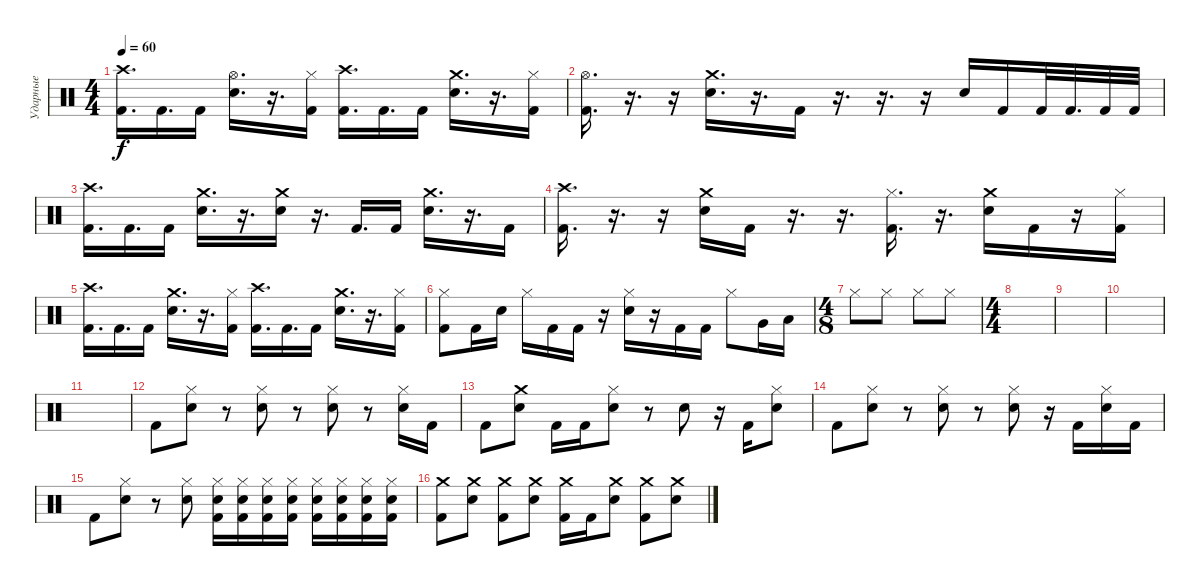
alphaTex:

\track ("Ударные" "Ударные") {instrument percussion}
\staff {score}
\articulation defaults
\ts (4 4)
\tempo 60
\clef neutral
\ks c
("Crash high (hit)" "Kick (hit) 2").16{d dy f} "Kick (hit) 2".16{d} "Kick (hit) 2".16 ("Hi-Hat (open)" "Electric Snare (hit)").16{d} r.16{d} ("Hi-Hat (closed)" "Kick (hit) 2").16 ("Crash high (hit)" "Kick (hit) 2").16{d} "Kick (hit) 2".16{d} "Kick (hit) 2".16 ("Crash medium (hit)" "Electric Snare (hit)").16{d} r.16{d} ("Hi-Hat (closed)" "Kick (hit) 2").16 |
("Hi-Hat (open)" "Kick (hit) 2").16{d} r.16{d} r.16 ("Crash medium (hit)" "Electric Snare (hit)").16{d} r.16{d} "Kick (hit) 2".16 r.16{d} r.16{d} r.16 "Electric Snare (hit)".16 "Kick (hit) 2".16 "Kick (hit) 2".32 "Kick (hit) 2".32{d} "Kick (hit) 2".32 "Kick (hit) 2".32 |
("Crash high (hit)" "Kick (hit) 2").16{d} "Kick (hit) 2".16{d} "Kick (hit) 2".16 ("Crash medium (hit)" "Electric Snare (hit)").16{d} r.16{d} ("Crash medium (hit)" "Electric Snare (hit)").16 r.16{d} "Kick (hit) 2".16{d} "Kick (hit) 2".16 ("Crash medium (hit)" "Electric Snare (hit)").16{d} r.16{d} "Kick (hit) 2".16 |
("Crash high (hit)" "Kick (hit) 2").16{d} r.16{d} r.16 ("Crash medium (hit)" "Electric Snare (hit)").16 "Kick (hit) 2".16 r.16{d} r.16{d} ("Hi-Hat (closed)" "Kick (hit) 2").16{d} r.16{d} ("Crash medium (hit)" "Electric Snare (hit)").16 "Kick (hit) 2".16 r.16 ("Hi-Hat (closed)" "Kick (hit) 2").16 |
("Crash high (hit)" "Kick (hit) 2").16{d} "Kick (hit) 2".16{d} "Kick (hit) 2".16 ("Crash medium (hit)" "Electric Snare (hit)").16{d} r.16{d} ("Hi-Hat (closed)" "Kick (hit) 2").16 ("Crash high (hit)" "Kick (hit) 2").16{d} "Kick (hit) 2".16{d} "Kick (hit) 2".16 ("Crash medium (hit)" "Electric Snare (hit)").16{d} r.16{d} ("Hi-Hat (closed)" "Kick (hit) 2").16 |
("Hi-Hat (closed)" "Kick (hit) 2").8 "Kick (hit) 2".16 "Electric Snare (hit)".16 "Hi-Hat (closed)".16 "Kick (hit) 2".16 "Kick (hit) 2".16 r.16 ("Hi-Hat (closed)" "Electric Snare (hit)").16 r.16 "Kick (hit) 2".16 "Kick (hit) 2".16 "Hi-Hat (closed)".8 "Very Low Tom (hit)".16 "Low Floor Tom (hit)".16 |
\ts (4 8)
"Hi-Hat (closed)".8 "Hi-Hat (closed)".8 "Hi-Hat (closed)".8 "Hi-Hat (closed)".8 |
\ts (4 4)
|
|
|
|
"Kick (hit) 2".8 ("Hi-Hat (closed)" "Electric Snare (hit)").8 r.8 ("Hi-Hat (closed)" "Electric Snare (hit)").8 r.8 ("Hi-Hat (closed)" "Electric Snare (hit)").8 r.8 ("Hi-Hat (closed)" "Electric Snare (hit)").16 "Kick (hit) 2".16 |
"Kick (hit) 2".8 ("Crash medium (hit)" "Electric Snare (hit)").8 "Kick (hit) 2".16 "Kick (hit) 2".16 ("Hi-Hat (closed)" "Electric Snare (hit)").8 r.8 "Electric Snare (hit)".8 r.16 "Kick (hit) 2".16 ("Hi-Hat (closed)" "Electric Snare (hit)").8 |
"Kick (hit) 2".8 ("Hi-Hat (closed)" "Electric Snare (hit)").8 r.8 ("Hi-Hat (closed)" "Electric Snare (hit)").8 r.8 ("Hi-Hat (closed)" "Electric Snare (hit)").8 r.16 "Kick (hit) 2".16 ("Hi-Hat (closed)" "Electric Snare (hit)").16 "Kick (hit) 2".16 |
"Kick (hit) 2".8 ("Hi-Hat (closed)" "Electric Snare (hit)").8 r.8 ("Hi-Hat (closed)" "Electric Snare (hit)").8 ("Electric Snare (hit)" "Hi-Hat (closed)" "Kick (hit) 2").16 ("Electric Snare (hit)" "Hi-Hat (closed)" "Kick (hit) 2").16 ("Electric Snare (hit)" "Hi-Hat (closed)" "Kick (hit) 2").16 ("Electric Snare (hit)" "Hi-Hat (closed)" "Kick (hit) 2").16 ("Electric Snare (hit)" "Hi-Hat (closed)" "Kick (hit) 2").16 ("Electric Snare (hit)" "Hi-Hat (closed)" "Kick (hit) 2").16 ("Electric Snare (hit)" "Hi-Hat (closed)" "Kick (hit) 2").16 ("Electric Snare (hit)" "Hi-Hat (closed)" "Kick (hit) 2").16 |
("Crash medium (hit)" "Kick (hit) 2").8 ("Crash medium (hit)" "Electric Snare (hit)").8 ("Crash medium (hit)" "Kick (hit) 2").8 ("Crash medium (hit)" "Electric Snare (hit)").8 ("Crash medium (hit)" "Kick (hit) 2").16 "Kick (hit) 2".16 ("Crash medium (hit)" "Electric Snare (hit)").8 ("Crash medium (hit)" "Kick (hit) 2").8 ("Crash medium (hit)" "Electric Snare (hit)").8
